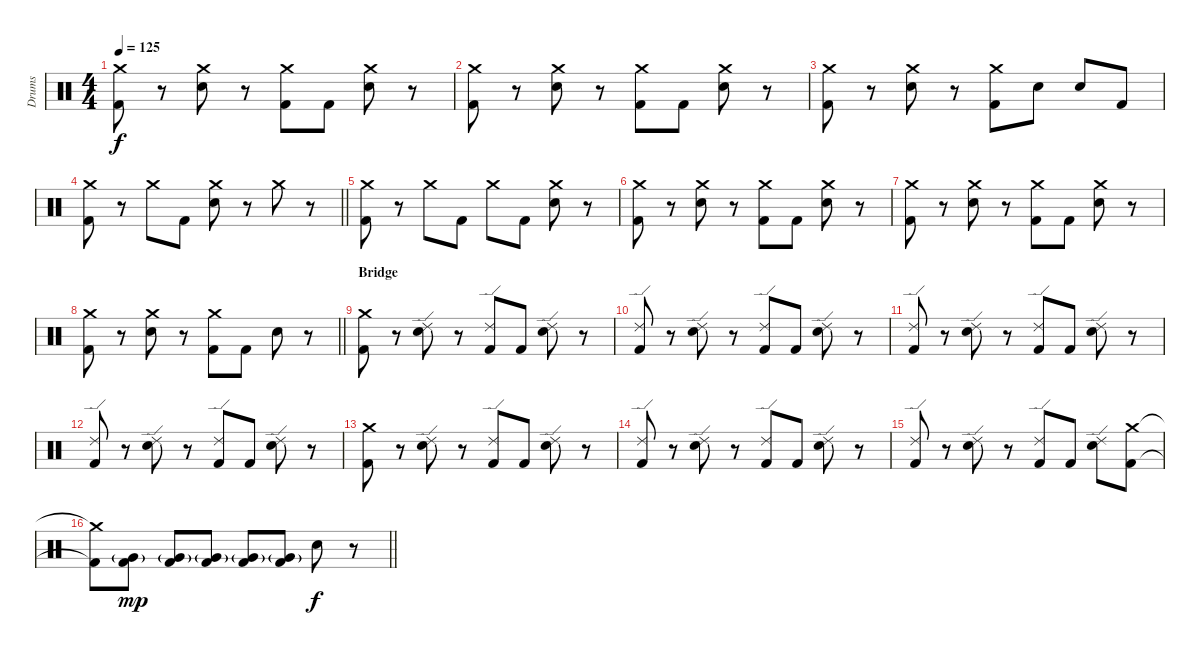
\track ("Drums" "Drums") {instrument percussion}
\staff {score}
\articulation defaults
\ts (4 4)
\tempo 125
\clef neutral
\ks c
("Crash medium (hit)" "Kick (hit) 2").8{dy f} r.8 ("Crash medium (hit)" "Electric Snare (hit)").8 r.8 ("Crash medium (hit)" "Kick (hit) 2").8 "Kick (hit) 2".8 ("Crash medium (hit)" "Electric Snare (hit)").8 r.8 |
("Crash medium (hit)" "Kick (hit) 2").8 r.8 ("Crash medium (hit)" "Electric Snare (hit)").8 r.8 ("Crash medium (hit)" "Kick (hit) 2").8 "Kick (hit) 2".8 ("Crash medium (hit)" "Electric Snare (hit)").8 r.8 |
("Crash medium (hit)" "Kick (hit) 2").8 r.8 ("Crash medium (hit)" "Electric Snare (hit)").8 r.8 ("Crash medium (hit)" "Kick (hit) 2").8 "Electric Snare (hit)".8 "Electric Snare (hit)".8 "Kick (hit) 2".8 |
\barLineRight lightlight
("Crash medium (hit)" "Kick (hit) 2").8 r.8 "Crash medium (hit)".8 "Kick (hit) 2".8 ("Crash medium (hit)" "Electric Snare (hit)").8 r.8 "Crash medium (hit)".8 r.8 |
("Crash medium (hit)" "Kick (hit) 2").8 r.8 "Crash medium (hit)".8 "Kick (hit) 2".8 "Crash medium (hit)".8 "Kick (hit) 2".8 ("Crash medium (hit)" "Electric Snare (hit)").8 r.8 |
("Crash medium (hit)" "Kick (hit) 2").8 r.8 ("Crash medium (hit)" "Electric Snare (hit)").8 r.8 ("Crash medium (hit)" "Kick (hit) 2").8 "Kick (hit) 2".8 ("Crash medium (hit)" "Electric Snare (hit)").8 r.8 |
("Crash medium (hit)" "Kick (hit) 2").8 r.8 ("Crash medium (hit)" "Electric Snare (hit)").8 r.8 ("Crash medium (hit)" "Kick (hit) 2").8 "Kick (hit) 2".8 ("Crash medium (hit)" "Electric Snare (hit)").8 r.8 |
\barLineRight lightlight
("Crash medium (hit)" "Kick (hit) 2").8 r.8 ("Crash medium (hit)" "Electric Snare (hit)").8 r.8 ("Crash medium (hit)" "Kick (hit) 2").8 "Kick (hit) 2".8 "Electric Snare (hit)".8 r.8 |
\section ("" "Bridge")
("Crash medium (hit)" "Kick (hit) 2").8 r.8 ("Ride (edge) 2" "Electric Snare (hit)").8 r.8 ("Ride (edge) 2" "Kick (hit) 2").8 "Kick (hit) 2".8 ("Ride (edge) 2" "Electric Snare (hit)").8 r.8 |
("Ride (edge) 2" "Kick (hit) 2").8 r.8 ("Ride (edge) 2" "Electric Snare (hit)").8 r.8 ("Ride (edge) 2" "Kick (hit) 2").8 "Kick (hit) 2".8 ("Ride (edge) 2" "Electric Snare (hit)").8 r.8 |
("Ride (edge) 2" "Kick (hit) 2").8 r.8 ("Ride (edge) 2" "Electric Snare (hit)").8 r.8 ("Ride (edge) 2" "Kick (hit) 2").8 "Kick (hit) 2".8 ("Ride (edge) 2" "Electric Snare (hit)").8 r.8 |
("Ride (edge) 2" "Kick (hit) 2").8 r.8 ("Ride (edge) 2" "Electric Snare (hit)").8 r.8 ("Ride (edge) 2" "Kick (hit) 2").8 "Kick (hit) 2".8 ("Ride (edge) 2" "Electric Snare (hit)").8 r.8 |
("Crash medium (hit)" "Kick (hit) 2").8 r.8 ("Ride (edge) 2" "Electric Snare (hit)").8 r.8 ("Ride (edge) 2" "Kick (hit) 2").8 "Kick (hit) 2".8 ("Ride (edge) 2" "Electric Snare (hit)").8 r.8 |
("Ride (edge) 2" "Kick (hit) 2").8 r.8 ("Ride (edge) 2" "Electric Snare (hit)").8 r.8 ("Ride (edge) 2" "Kick (hit) 2").8 "Kick (hit) 2".8 ("Ride (edge) 2" "Electric Snare (hit)").8 r.8 |
("Ride (edge) 2" "Kick (hit) 2").8 r.8 ("Ride (edge) 2" "Electric Snare (hit)").8 r.8 ("Ride (edge) 2" "Kick (hit) 2").8 "Kick (hit) 2".8 ("Ride (edge) 2" "Electric Snare (hit)").8 ("Crash medium (hit)" "Kick (hit) 2").8 |
\barLineRight lightlight
("Crash medium (hit)"{t} "Kick (hit) 2"{t}).8 ("Kick (hit) 2" "Very Low Tom (hit)"{g}).8{dy mp} ("Kick (hit) 2" "Very Low Tom (hit)"{g}).8 ("Kick (hit) 2" "Very Low Tom (hit)"{g}).8 ("Kick (hit) 2" "Very Low Tom (hit)"{g}).8 ("Kick (hit) 2" "Very Low Tom (hit)"{g}).8 "Electric Snare (hit)".8{dy f} r.8
